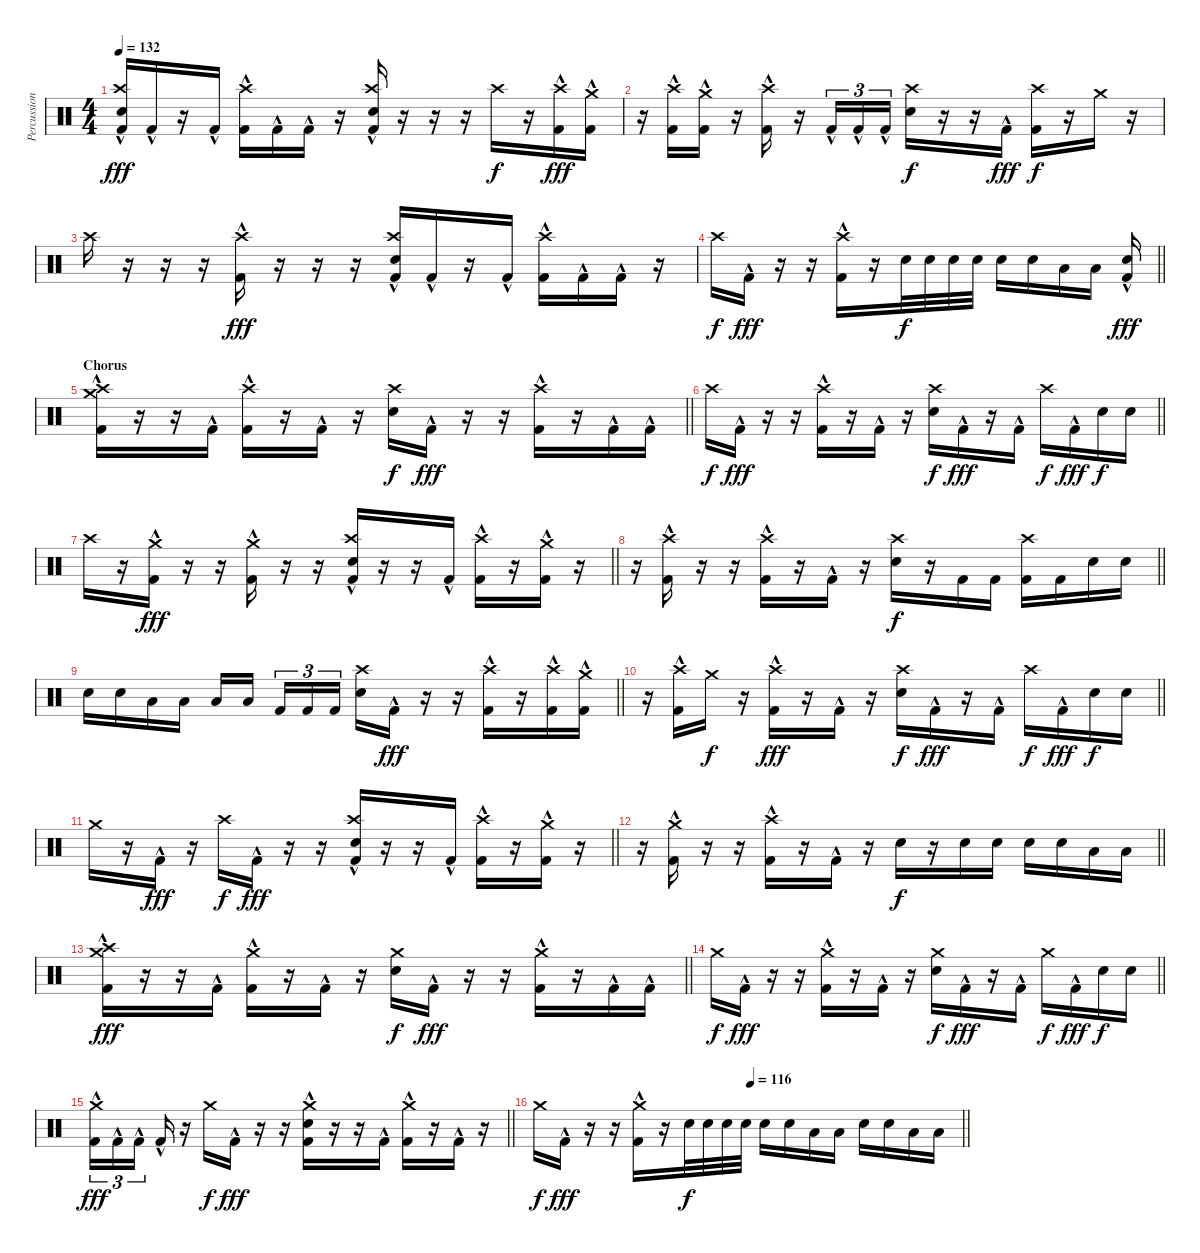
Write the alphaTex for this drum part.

\track ("Percussion" "Percussion") {instrument percussion}
\staff {score}
\articulation defaults
\ts (4 4)
\tempo 132
\clef neutral
\ks c
("Electric Snare (hit)" "Crash high (hit)" "Kick (hit) 2"{hac}).16{dy fff} "Kick (hit) 2"{hac}.16 r.16 "Kick (hit) 2"{hac}.16 ("Crash high (hit)" "Kick (hit) 2"{hac}).16 "Kick (hit) 2"{hac}.16 "Kick (hit) 2"{hac}.16 r.16 ("Electric Snare (hit)" "Crash high (hit)" "Kick (hit) 2"{hac}).16 r.16 r.16 r.16 "Crash high (hit)".16{dy f} r.16 ("Crash high (hit)" "Kick (hit) 2"{hac}).16{dy fff} ("Crash medium (hit)" "Kick (hit) 2"{hac}).16 |
r.16 ("Crash high (hit)" "Kick (hit) 2"{hac}).16 ("Crash medium (hit)" "Kick (hit) 2"{hac}).16 r.16 ("Crash high (hit)" "Kick (hit) 2"{hac}).16 r.16 "Kick (hit) 2"{hac}.16{tu (3 2)} "Kick (hit) 2"{hac}.16{tu (3 2)} "Kick (hit) 2"{hac}.16{tu (3 2)} ("Crash high (hit)" "Electric Snare (hit)").16{dy f} r.16 r.16 "Kick (hit) 2"{hac}.16{dy fff} ("Crash high (hit)" "Kick (hit) 2").16{dy f} r.16 "Crash medium (hit)".16 r.16 |
"Crash high (hit)".16 r.16 r.16 r.16 ("Crash high (hit)" "Kick (hit) 2"{hac}).16{dy fff} r.16 r.16 r.16 ("Crash high (hit)" "Electric Snare (hit)" "Kick (hit) 2"{hac}).16 "Kick (hit) 2"{hac}.16 r.16 "Kick (hit) 2"{hac}.16 ("Crash high (hit)" "Kick (hit) 2"{hac}).16 "Kick (hit) 2"{hac}.16 "Kick (hit) 2"{hac}.16 r.16 |
\barLineRight lightlight "Crash high (hit)".16{dy f} "Kick (hit) 2"{hac}.16{dy fff}
r.16 r.16 ("Crash high (hit)" "Kick (hit) 2"{hac}).16 r.16 "Electric Snare (hit)".32{dy f} "Electric Snare (hit)".32 "Electric Snare (hit)".32 "Electric Snare (hit)".32 "Electric Snare (hit)".16 "Electric Snare (hit)".16 "Low Tom (hit)".16 "Low Tom (hit)".16 ("Electric Snare (hit)" "Kick (hit) 2"{hac}).16{dy fff} |
\section ("" "Chorus")
\barLineRight lightlight
("Crash high (hit)" "Crash medium (hit)" "Kick (hit) 2"{hac}).16 r.16 r.16 "Kick (hit) 2"{hac}.16 ("Crash high (hit)" "Kick (hit) 2"{hac}).16 r.16 "Kick (hit) 2"{hac}.16 r.16 ("Crash high (hit)" "Electric Snare (hit)").16{dy f} "Kick (hit) 2"{hac}.16{dy fff} r.16 r.16 ("Crash high (hit)" "Kick (hit) 2"{hac}).16 r.16 "Kick (hit) 2"{hac}.16 "Kick (hit) 2"{hac}.16 |
\barLineRight lightlight "Crash high (hit)".16{dy f} "Kick (hit) 2"{hac}.16{dy fff}
r.16 r.16 ("Crash high (hit)" "Kick (hit) 2"{hac}).16 r.16 "Kick (hit) 2"{hac}.16 r.16 ("Crash high (hit)" "Electric Snare (hit)").16{dy f} "Kick (hit) 2"{hac}.16{dy fff} r.16 "Kick (hit) 2"{hac}.16 "Crash high (hit)".16{dy f} "Kick (hit) 2"{hac}.16{dy fff} "Electric Snare (hit)".16{dy f} "Electric Snare (hit)".16 |
\barLineRight lightlight "Crash high (hit)".16
r.16 ("Crash medium (hit)" "Kick (hit) 2"{hac}).16{dy fff} r.16 r.16 ("Crash medium (hit)" "Kick (hit) 2"{hac}).16 r.16 r.16 ("Crash high (hit)" "Electric Snare (hit)" "Kick (hit) 2"{hac}).16 r.16 r.16 "Kick (hit) 2"{hac}.16 ("Crash high (hit)" "Kick (hit) 2"{hac}).16 r.16 ("Crash medium (hit)" "Kick (hit) 2"{hac}).16 r.16 |
\barLineRight lightlight
r.16 ("Crash high (hit)" "Kick (hit) 2"{hac}).16 r.16 r.16 ("Crash high (hit)" "Kick (hit) 2"{hac}).16 r.16 "Kick (hit) 2"{hac}.16 r.16 ("Crash high (hit)" "Electric Snare (hit)").16{dy f} r.16 "Kick (hit) 2".16 "Kick (hit) 2".16 ("Crash high (hit)" "Kick (hit) 2").16 "Kick (hit) 2".16 "Electric Snare (hit)".16 "Electric Snare (hit)".16 |
\barLineRight lightlight "Electric Snare (hit)".16 "Electric Snare (hit)".16 "Low Tom (hit)".16 "Low Tom (hit)".16 "Low Floor Tom (hit)".16 "Low Floor Tom (hit)".16{beam splitsecondary} "Kick (hit) 2".16{tu (3 2)} "Kick (hit) 2".16{tu (3 2)} "Kick (hit) 2".16{tu (3 2)}
("Crash high (hit)" "Electric Snare (hit)").16 "Kick (hit) 2"{hac}.16{dy fff} r.16 r.16 ("Crash high (hit)" "Kick (hit) 2"{hac}).16 r.16 ("Crash high (hit)" "Kick (hit) 2"{hac}).16 ("Crash medium (hit)" "Kick (hit) 2"{hac}).16 |
\barLineRight lightlight
r.16 ("Crash high (hit)" "Kick (hit) 2"{hac}).16 "Crash medium (hit)".16{dy f} r.16 ("Crash high (hit)" "Kick (hit) 2"{hac}).16{dy fff} r.16 "Kick (hit) 2"{hac}.16 r.16 ("Crash high (hit)" "Electric Snare (hit)").16{dy f} "Kick (hit) 2"{hac}.16{dy fff} r.16 "Kick (hit) 2"{hac}.16 "Crash high (hit)".16{dy f} "Kick (hit) 2"{hac}.16{dy fff} "Electric Snare (hit)".16{dy f} "Electric Snare (hit)".16 |
\barLineRight lightlight "Crash medium (hit)".16
r.16 "Kick (hit) 2"{hac}.16{dy fff} r.16 "Crash high (hit)".16{dy f} "Kick (hit) 2"{hac}.16{dy fff} r.16 r.16 ("Crash high (hit)" "Electric Snare (hit)" "Kick (hit) 2"{hac}).16 r.16 r.16 "Kick (hit) 2"{hac}.16 ("Crash high (hit)" "Kick (hit) 2"{hac}).16 r.16 ("Crash medium (hit)" "Kick (hit) 2"{hac}).16 r.16 |
\barLineRight lightlight
r.16 ("Crash medium (hit)" "Kick (hit) 2"{hac}).16 r.16 r.16 ("Crash high (hit)" "Kick (hit) 2"{hac}).16 r.16 "Kick (hit) 2"{hac}.16 r.16 "Electric Snare (hit)".16{dy f} r.16 "Electric Snare (hit)".16 "Electric Snare (hit)".16 "Electric Snare (hit)".16 "Electric Snare (hit)".16 "Low Tom (hit)".16 "Low Tom (hit)".16 |
\barLineRight lightlight
("Crash high (hit)" "Crash medium (hit)" "Kick (hit) 2"{hac}).16{dy fff} r.16 r.16 "Kick (hit) 2"{hac}.16 ("Crash medium (hit)" "Kick (hit) 2"{hac}).16 r.16 "Kick (hit) 2"{hac}.16 r.16 ("Crash medium (hit)" "Electric Snare (hit)").16{dy f} "Kick (hit) 2"{hac}.16{dy fff} r.16 r.16 ("Crash medium (hit)" "Kick (hit) 2"{hac}).16 r.16 "Kick (hit) 2"{hac}.16 "Kick (hit) 2"{hac}.16 |
\barLineRight lightlight "Crash medium (hit)".16{dy f} "Kick (hit) 2"{hac}.16{dy fff}
r.16 r.16 ("Crash medium (hit)" "Kick (hit) 2"{hac}).16 r.16 "Kick (hit) 2"{hac}.16 r.16 ("Crash medium (hit)" "Electric Snare (hit)").16{dy f} "Kick (hit) 2"{hac}.16{dy fff} r.16 "Kick (hit) 2"{hac}.16 "Crash medium (hit)".16{dy f} "Kick (hit) 2"{hac}.16{dy fff} "Electric Snare (hit)".16{dy f} "Electric Snare (hit)".16 |
\barLineRight lightlight
("Crash medium (hit)" "Kick (hit) 2"{hac}).16{tu (3 2) dy fff} "Kick (hit) 2"{hac}.16{tu (3 2)} "Kick (hit) 2"{hac}.16{tu (3 2) beam splitsecondary} "Kick (hit) 2"{hac}.16 r.16 "Crash medium (hit)".16{dy f} "Kick (hit) 2"{hac}.16{dy fff} r.16 r.16 ("Crash medium (hit)" "Electric Snare (hit)" "Kick (hit) 2"{hac}).16 r.16 r.16 "Kick (hit) 2"{hac}.16 ("Crash medium (hit)" "Kick (hit) 2"{hac}).16 r.16 "Kick (hit) 2"{hac}.16 r.16 |
\tempo (116 0.5)
\barLineRight lightlight "Crash medium (hit)".16{dy f} "Kick (hit) 2"{hac}.16{dy fff}
r.16 r.16 ("Crash medium (hit)" "Kick (hit) 2"{hac}).16 r.16 "Electric Snare (hit)".32{dy f} "Electric Snare (hit)".32 "Electric Snare (hit)".32 "Electric Snare (hit)".32 "Electric Snare (hit)".16 "Electric Snare (hit)".16 "Low Tom (hit)".16 "Low Tom (hit)".16 "Electric Snare (hit)".16 "Electric Snare (hit)".16 "Low Tom (hit)".16 "Low Tom (hit)".16
